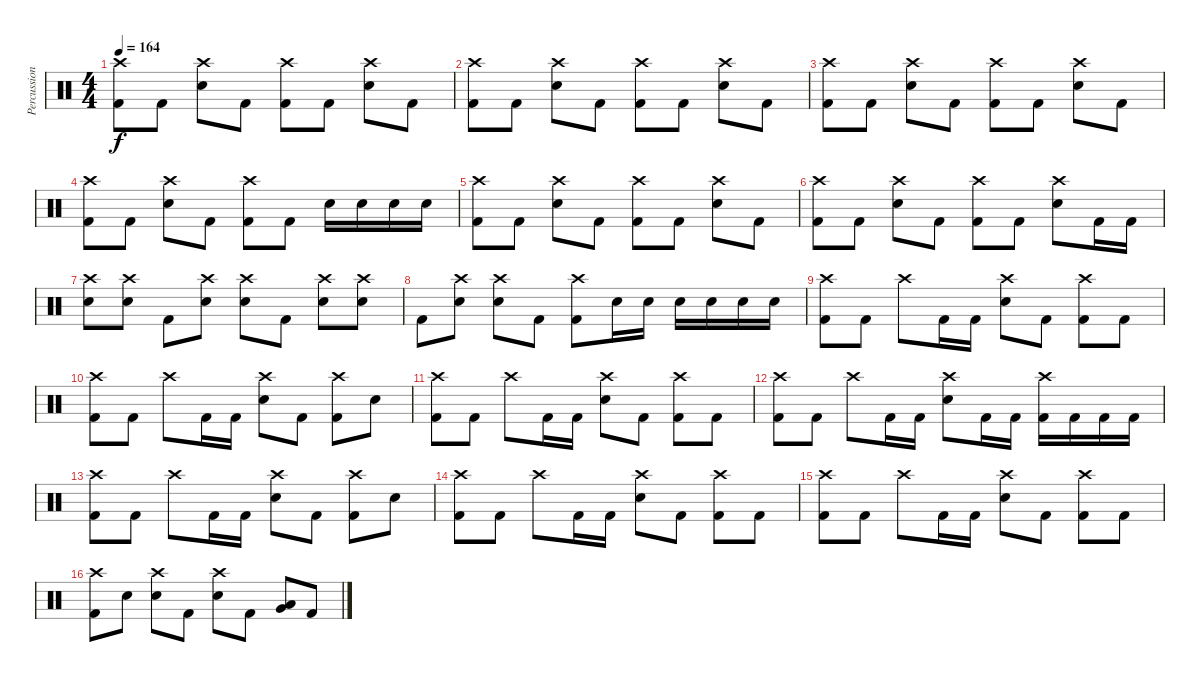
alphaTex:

\track ("Percussion" "Percussion") {instrument percussion}
\staff {score}
\articulation defaults
\ts (4 4)
\tempo 164
\clef neutral
\ks c
("Crash high (hit)" "Kick (hit) 2").8{dy f} "Kick (hit) 2".8 ("Crash high (hit)" "Electric Snare (hit)").8 "Kick (hit) 2".8 ("Crash high (hit)" "Kick (hit) 2").8 "Kick (hit) 2".8 ("Crash high (hit)" "Electric Snare (hit)").8 "Kick (hit) 2".8 |
("Crash high (hit)" "Kick (hit) 2").8 "Kick (hit) 2".8 ("Crash high (hit)" "Electric Snare (hit)").8 "Kick (hit) 2".8 ("Crash high (hit)" "Kick (hit) 2").8 "Kick (hit) 2".8 ("Crash high (hit)" "Electric Snare (hit)").8 "Kick (hit) 2".8 |
("Crash high (hit)" "Kick (hit) 2").8 "Kick (hit) 2".8 ("Crash high (hit)" "Electric Snare (hit)").8 "Kick (hit) 2".8 ("Crash high (hit)" "Kick (hit) 2").8 "Kick (hit) 2".8 ("Crash high (hit)" "Electric Snare (hit)").8 "Kick (hit) 2".8 |
("Crash high (hit)" "Kick (hit) 2").8 "Kick (hit) 2".8 ("Crash high (hit)" "Electric Snare (hit)").8 "Kick (hit) 2".8 ("Crash high (hit)" "Kick (hit) 2").8 "Kick (hit) 2".8 "Electric Snare (hit)".16 "Electric Snare (hit)".16 "Electric Snare (hit)".16 "Electric Snare (hit)".16 |
("Crash high (hit)" "Kick (hit) 2").8 "Kick (hit) 2".8 ("Crash high (hit)" "Electric Snare (hit)").8 "Kick (hit) 2".8 ("Crash high (hit)" "Kick (hit) 2").8 "Kick (hit) 2".8 ("Crash high (hit)" "Electric Snare (hit)").8 "Kick (hit) 2".8 |
("Crash high (hit)" "Kick (hit) 2").8 "Kick (hit) 2".8 ("Crash high (hit)" "Electric Snare (hit)").8 "Kick (hit) 2".8 ("Crash high (hit)" "Kick (hit) 2").8 "Kick (hit) 2".8 ("Crash high (hit)" "Electric Snare (hit)").8 "Kick (hit) 2".16 "Kick (hit) 2".16 |
("Crash high (hit)" "Electric Snare (hit)").8 ("Crash high (hit)" "Electric Snare (hit)").8 "Kick (hit) 2".8 ("Crash high (hit)" "Electric Snare (hit)").8 ("Crash high (hit)" "Electric Snare (hit)").8 "Kick (hit) 2".8 ("Crash high (hit)" "Electric Snare (hit)").8 ("Crash high (hit)" "Electric Snare (hit)").8 |
"Kick (hit) 2".8 ("Crash high (hit)" "Electric Snare (hit)").8 ("Crash high (hit)" "Electric Snare (hit)").8 "Kick (hit) 2".8 ("Crash high (hit)" "Kick (hit) 2").8 "Electric Snare (hit)".16 "Electric Snare (hit)".16 "Electric Snare (hit)".16 "Electric Snare (hit)".16 "Electric Snare (hit)".16 "Electric Snare (hit)".16 |
("Crash high (hit)" "Kick (hit) 2").8 "Kick (hit) 2".8 "Crash high (hit)".8 "Kick (hit) 2".16 "Kick (hit) 2".16 ("Crash high (hit)" "Electric Snare (hit)").8 "Kick (hit) 2".8 ("Crash high (hit)" "Kick (hit) 2").8 "Kick (hit) 2".8 |
("Crash high (hit)" "Kick (hit) 2").8 "Kick (hit) 2".8 "Crash high (hit)".8 "Kick (hit) 2".16 "Kick (hit) 2".16 ("Crash high (hit)" "Electric Snare (hit)").8 "Kick (hit) 2".8 ("Crash high (hit)" "Kick (hit) 2").8 "Electric Snare (hit)".8 |
("Crash high (hit)" "Kick (hit) 2").8 "Kick (hit) 2".8 "Crash high (hit)".8 "Kick (hit) 2".16 "Kick (hit) 2".16 ("Crash high (hit)" "Electric Snare (hit)").8 "Kick (hit) 2".8 ("Crash high (hit)" "Kick (hit) 2").8 "Kick (hit) 2".8 |
("Crash high (hit)" "Kick (hit) 2").8 "Kick (hit) 2".8 "Crash high (hit)".8 "Kick (hit) 2".16 "Kick (hit) 2".16 ("Crash high (hit)" "Electric Snare (hit)").8 "Kick (hit) 2".16 "Kick (hit) 2".16 ("Crash high (hit)" "Kick (hit) 2").16 "Kick (hit) 2".16 "Kick (hit) 2".16 "Kick (hit) 2".16 |
("Crash high (hit)" "Kick (hit) 2").8 "Kick (hit) 2".8 "Crash high (hit)".8 "Kick (hit) 2".16 "Kick (hit) 2".16 ("Crash high (hit)" "Electric Snare (hit)").8 "Kick (hit) 2".8 ("Crash high (hit)" "Kick (hit) 2").8 "Electric Snare (hit)".8 |
("Crash high (hit)" "Kick (hit) 2").8 "Kick (hit) 2".8 "Crash high (hit)".8 "Kick (hit) 2".16 "Kick (hit) 2".16 ("Crash high (hit)" "Electric Snare (hit)").8 "Kick (hit) 2".8 ("Crash high (hit)" "Kick (hit) 2").8 "Kick (hit) 2".8 |
("Crash high (hit)" "Kick (hit) 2").8 "Kick (hit) 2".8 "Crash high (hit)".8 "Kick (hit) 2".16 "Kick (hit) 2".16 ("Crash high (hit)" "Electric Snare (hit)").8 "Kick (hit) 2".8 ("Crash high (hit)" "Kick (hit) 2").8 "Kick (hit) 2".8 |
("Crash high (hit)" "Kick (hit) 2").8 "Electric Snare (hit)".8 ("Crash high (hit)" "Electric Snare (hit)").8 "Kick (hit) 2".8 ("Crash high (hit)" "Electric Snare (hit)").8 "Kick (hit) 2".8 ("Very Low Tom (hit)" "Low Tom (hit)").8 "Kick (hit) 2".8
